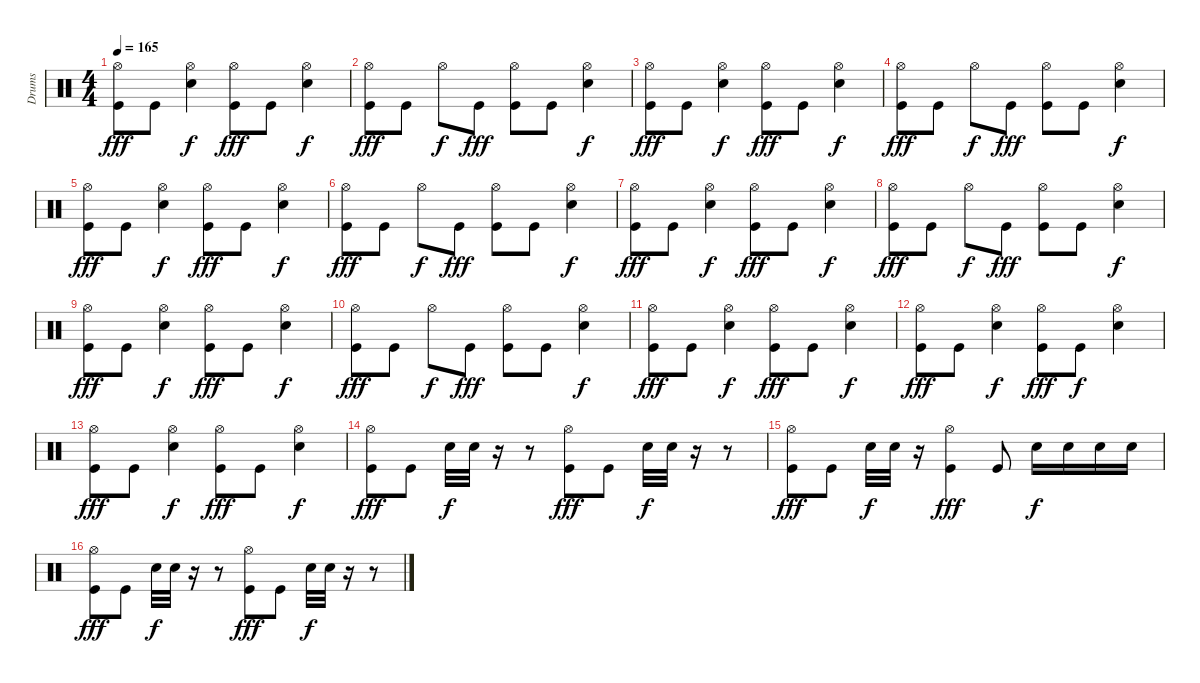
\track ("Drums" "Drums") {instrument percussion}
\staff {score}
\articulation defaults
\ts (4 4)
\tempo 165
\clef neutral
\ks c
("Hi-Hat (open)" "Kick (hit)").8{dy fff} "Kick (hit)".8 ("Hi-Hat (open)" "Snare (hit) 2").4{dy f} ("Hi-Hat (open)" "Kick (hit)").8{dy fff} "Kick (hit)".8 ("Hi-Hat (open)" "Snare (hit) 2").4{dy f} |
("Hi-Hat (open)" "Kick (hit)").8{dy fff} "Kick (hit)".8 "Hi-Hat (open)".8{dy f} "Kick (hit)".8{dy fff} ("Hi-Hat (open)" "Kick (hit)").8 "Kick (hit)".8 ("Hi-Hat (open)" "Snare (hit) 2").4{dy f} |
("Hi-Hat (open)" "Kick (hit)").8{dy fff} "Kick (hit)".8 ("Hi-Hat (open)" "Snare (hit) 2").4{dy f} ("Hi-Hat (open)" "Kick (hit)").8{dy fff} "Kick (hit)".8 ("Hi-Hat (open)" "Snare (hit) 2").4{dy f} |
("Hi-Hat (open)" "Kick (hit)").8{dy fff} "Kick (hit)".8 "Hi-Hat (open)".8{dy f} "Kick (hit)".8{dy fff} ("Hi-Hat (open)" "Kick (hit)").8 "Kick (hit)".8 ("Hi-Hat (open)" "Snare (hit) 2").4{dy f} |
("Hi-Hat (open)" "Kick (hit)").8{dy fff} "Kick (hit)".8 ("Hi-Hat (open)" "Snare (hit) 2").4{dy f} ("Hi-Hat (open)" "Kick (hit)").8{dy fff} "Kick (hit)".8 ("Hi-Hat (open)" "Snare (hit) 2").4{dy f} |
("Hi-Hat (open)" "Kick (hit)").8{dy fff} "Kick (hit)".8 "Hi-Hat (open)".8{dy f} "Kick (hit)".8{dy fff} ("Hi-Hat (open)" "Kick (hit)").8 "Kick (hit)".8 ("Hi-Hat (open)" "Snare (hit) 2").4{dy f} |
("Hi-Hat (open)" "Kick (hit)").8{dy fff} "Kick (hit)".8 ("Hi-Hat (open)" "Snare (hit) 2").4{dy f} ("Hi-Hat (open)" "Kick (hit)").8{dy fff} "Kick (hit)".8 ("Hi-Hat (open)" "Snare (hit) 2").4{dy f} |
("Hi-Hat (open)" "Kick (hit)").8{dy fff} "Kick (hit)".8 "Hi-Hat (open)".8{dy f} "Kick (hit)".8{dy fff} ("Hi-Hat (open)" "Kick (hit)").8 "Kick (hit)".8 ("Hi-Hat (open)" "Snare (hit) 2").4{dy f} |
("Hi-Hat (open)" "Kick (hit)").8{dy fff} "Kick (hit)".8 ("Hi-Hat (open)" "Snare (hit) 2").4{dy f} ("Hi-Hat (open)" "Kick (hit)").8{dy fff} "Kick (hit)".8 ("Hi-Hat (open)" "Snare (hit) 2").4{dy f} |
("Hi-Hat (open)" "Kick (hit)").8{dy fff} "Kick (hit)".8 "Hi-Hat (open)".8{dy f} "Kick (hit)".8{dy fff} ("Hi-Hat (open)" "Kick (hit)").8 "Kick (hit)".8 ("Hi-Hat (open)" "Snare (hit) 2").4{dy f} |
("Hi-Hat (open)" "Kick (hit)").8{dy fff} "Kick (hit)".8 ("Hi-Hat (open)" "Snare (hit) 2").4{dy f} ("Hi-Hat (open)" "Kick (hit)").8{dy fff} "Kick (hit)".8 ("Hi-Hat (open)" "Snare (hit) 2").4{dy f} |
("Hi-Hat (open)" "Kick (hit)").8{dy fff} "Kick (hit)".8 ("Hi-Hat (open)" "Snare (hit) 2").4{dy f} ("Hi-Hat (open)" "Kick (hit)").8{dy fff} "Kick (hit)".8{dy f} ("Hi-Hat (open)" "Snare (hit) 2").4 |
("Hi-Hat (open)" "Kick (hit)").8{dy fff} "Kick (hit)".8 ("Hi-Hat (open)" "Snare (hit) 2").4{dy f} ("Hi-Hat (open)" "Kick (hit)").8{dy fff} "Kick (hit)".8 ("Hi-Hat (open)" "Snare (hit) 2").4{dy f} |
("Hi-Hat (open)" "Kick (hit)").8{dy fff} "Kick (hit)".8 "Snare (hit) 2".32{dy f} "Snare (hit) 2".32 r.16 r.8 ("Hi-Hat (open)" "Kick (hit)").8{dy fff} "Kick (hit)".8 "Snare (hit) 2".32{dy f} "Snare (hit) 2".32 r.16 r.8 |
("Hi-Hat (open)" "Kick (hit)").8{dy fff} "Kick (hit)".8 "Snare (hit) 2".32{dy f} "Snare (hit) 2".32 r.16 ("Hi-Hat (open)" "Kick (hit)").4{dy fff} "Kick (hit)".8 "Snare (hit) 2".16{dy f} "Snare (hit) 2".16 "Snare (hit) 2".16 "Snare (hit) 2".16 |
("Hi-Hat (open)" "Kick (hit)").8{dy fff} "Kick (hit)".8 "Snare (hit) 2".32{dy f} "Snare (hit) 2".32 r.16 r.8 ("Hi-Hat (open)" "Kick (hit)").8{dy fff} "Kick (hit)".8 "Snare (hit) 2".32{dy f} "Snare (hit) 2".32 r.16 r.8
